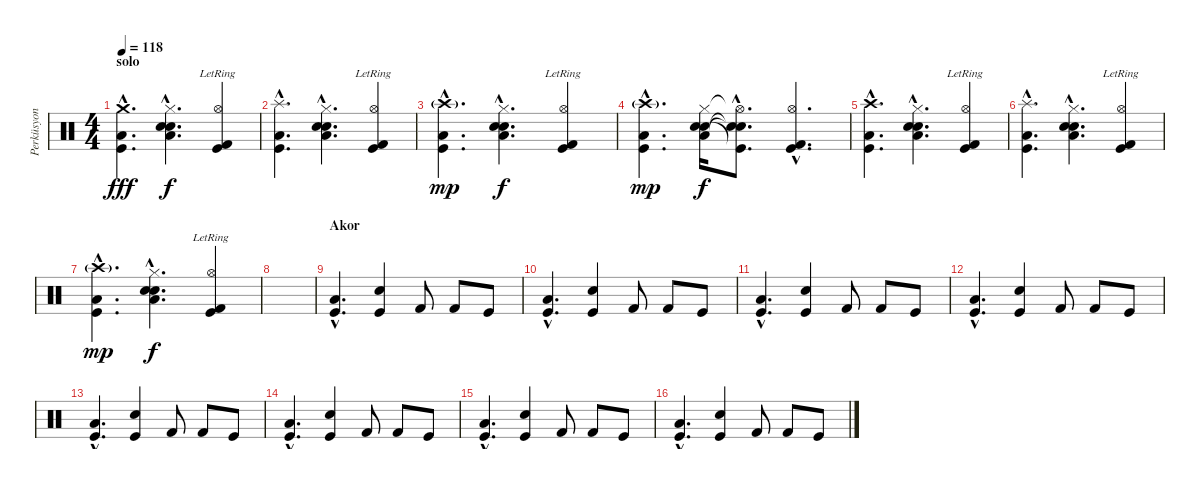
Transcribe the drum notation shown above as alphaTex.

\track ("Perküsyon" "Perküsyon") {instrument percussion}
\staff {score}
\articulation defaults
\ts (4 4)
\section ("" "solo")
\tempo 118
\clef neutral
\ks c
("Crash medium (hit)"{hac} "Low Tom (hit)"{hac} "Kick (hit)"{hac}).4{d dy fff} ("Low Floor Tom (hit)"{hac} "Hi-Hat (closed)"{hac} "Snare (hit)"{hac} "Electric Snare (hit)"{hac}).4{d dy f} ("Hi-Hat (open)"{lr} "Kick (hit) 2" "Kick (hit)").4 |
("Splash (hit)"{hac} "Low Tom (hit)"{hac} "Kick (hit)"{hac}).4{d} ("Low Floor Tom (hit)"{hac} "Hi-Hat (closed)"{hac} "Snare (hit)"{hac} "Electric Snare (hit)"{hac}).4{d} ("Hi-Hat (open)"{lr} "Kick (hit) 2" "Kick (hit)").4 |
("Crash high (hit)"{g hac} "Low Tom (hit)"{hac} "Kick (hit)"{hac}).4{d dy mp} ("Low Floor Tom (hit)"{hac} "Hi-Hat (closed)"{hac} "Snare (hit)"{hac} "Electric Snare (hit)"{hac}).4{d dy f} ("Hi-Hat (open)"{lr} "Kick (hit) 2" "Kick (hit)").4 |
("Crash high (hit)"{g} "Low Tom (hit)"{hac} "Kick (hit)"{hac}).4{d dy mp} ("Low Floor Tom (hit)" "Hi-Hat (closed)" "Snare (hit)" "Electric Snare (hit)").16{dy f} ("Snare (hit)"{hac t} "Hi-Hat (open)"{hac t} "Snare (hit)"{hac t} "Kick (hit)"{hac t}).8{d} ("Hi-Hat (open)"{hac} "Kick (hit)"{hac} "Kick (hit) 2"{hac}).4{d} |
("Crash high (hit)"{hac} "Low Tom (hit)"{hac} "Kick (hit)"{hac}).4{d} ("Low Floor Tom (hit)"{hac} "Hi-Hat (closed)"{hac} "Snare (hit)"{hac} "Electric Snare (hit)"{hac}).4{d} ("Hi-Hat (open)"{lr} "Kick (hit) 2" "Kick (hit)").4 |
("Splash (hit)"{hac} "Low Tom (hit)"{hac} "Kick (hit)"{hac}).4{d} ("Low Floor Tom (hit)"{hac} "Hi-Hat (closed)"{hac} "Snare (hit)"{hac} "Electric Snare (hit)"{hac}).4{d} ("Hi-Hat (open)"{lr} "Kick (hit) 2" "Kick (hit)").4 |
("Crash high (hit)"{g hac} "Low Tom (hit)"{hac} "Kick (hit)"{hac}).4{d dy mp} ("Low Floor Tom (hit)"{hac} "Hi-Hat (closed)"{hac} "Snare (hit)"{hac} "Electric Snare (hit)"{hac}).4{d dy f} ("Hi-Hat (open)"{lr} "Kick (hit) 2" "Kick (hit)").4 |
|
\section ("" "Akor")
("Low Floor Tom (hit)"{hac} "Kick (hit)"{hac}).4{d} ("Electric Snare (hit)" "Kick (hit)").4 "Kick (hit) 2".8 "Kick (hit) 2".8 "Kick (hit)".8 |
("Low Floor Tom (hit)"{hac} "Kick (hit)"{hac}).4{d} ("Electric Snare (hit)" "Kick (hit)").4 "Kick (hit) 2".8 "Kick (hit) 2".8 "Kick (hit)".8 |
("Low Floor Tom (hit)"{hac} "Kick (hit)"{hac}).4{d} ("Electric Snare (hit)" "Kick (hit)").4 "Kick (hit) 2".8 "Kick (hit) 2".8 "Kick (hit)".8 |
("Low Floor Tom (hit)"{hac} "Kick (hit)"{hac}).4{d} ("Electric Snare (hit)" "Kick (hit)").4 "Kick (hit) 2".8 "Kick (hit) 2".8 "Kick (hit)".8 |
("Low Floor Tom (hit)"{hac} "Kick (hit)"{hac}).4{d} ("Electric Snare (hit)" "Kick (hit)").4 "Kick (hit) 2".8 "Kick (hit) 2".8 "Kick (hit)".8 |
("Low Floor Tom (hit)"{hac} "Kick (hit)"{hac}).4{d} ("Electric Snare (hit)" "Kick (hit)").4 "Kick (hit) 2".8 "Kick (hit) 2".8 "Kick (hit)".8 |
("Low Floor Tom (hit)"{hac} "Kick (hit)"{hac}).4{d} ("Electric Snare (hit)" "Kick (hit)").4 "Kick (hit) 2".8 "Kick (hit) 2".8 "Kick (hit)".8 |
("Low Floor Tom (hit)"{hac} "Kick (hit)"{hac}).4{d} ("Electric Snare (hit)" "Kick (hit)").4 "Kick (hit) 2".8 "Kick (hit) 2".8 "Kick (hit)".8
